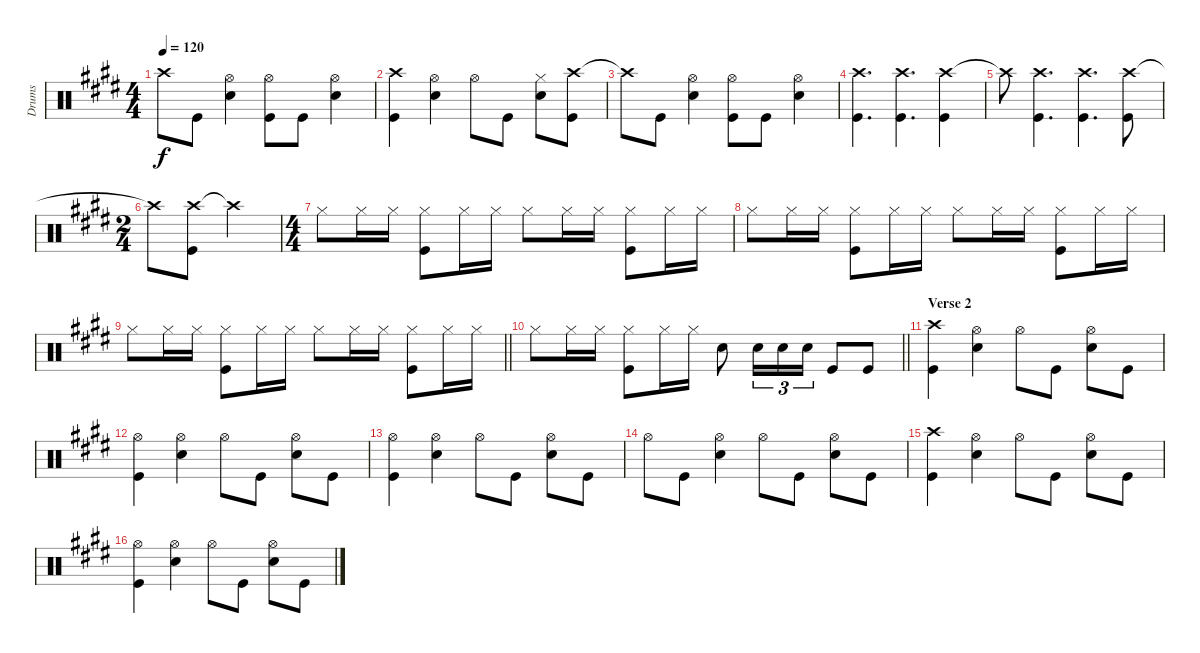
\track ("Drums" "Drums") {instrument percussion}
\staff {score}
\articulation defaults
\ts (4 4)
\tempo 120
\clef neutral
\ks e "Crash high (hit)"{t}.8{dy f} "Kick (hit)".8
("Hi-Hat (open)" "Snare (hit) 2").4 ("Hi-Hat (open)" "Kick (hit)").8 "Kick (hit)".8 ("Hi-Hat (open)" "Snare (hit) 2").4 |
("Crash high (hit)" "Kick (hit)").4 ("Hi-Hat (open)" "Snare (hit) 2").4 "Hi-Hat (open)".8 "Kick (hit)".8 ("Hi-Hat (closed)" "Snare (hit) 2").8 ("Crash high (hit)" "Kick (hit)").8 |
"Crash high (hit)"{t}.8 "Kick (hit)".8 ("Hi-Hat (open)" "Snare (hit) 2").4 ("Hi-Hat (open)" "Kick (hit)").8 "Kick (hit)".8 ("Hi-Hat (open)" "Snare (hit) 2").4 |
("Crash high (hit)" "Kick (hit)").4{d} ("Crash high (hit)" "Kick (hit)").4{d} ("Crash high (hit)" "Kick (hit)").4 |
"Crash high (hit)"{t}.8 ("Crash high (hit)" "Kick (hit)").4{d} ("Crash high (hit)" "Kick (hit)").4{d} ("Crash high (hit)" "Kick (hit)").8 |
\ts (2 4)
"Crash high (hit)"{t}.8 ("Crash high (hit)" "Kick (hit)").8 "Crash high (hit)"{t}.4 |
\ts (4 4)
"Hi-Hat (closed)".8 "Hi-Hat (closed)".16 "Hi-Hat (closed)".16 ("Hi-Hat (closed)" "Kick (hit)").8 "Hi-Hat (closed)".16 "Hi-Hat (closed)".16 "Hi-Hat (closed)".8 "Hi-Hat (closed)".16 "Hi-Hat (closed)".16 ("Hi-Hat (closed)" "Kick (hit)").8 "Hi-Hat (closed)".16 "Hi-Hat (closed)".16 |
"Hi-Hat (closed)".8 "Hi-Hat (closed)".16 "Hi-Hat (closed)".16 ("Hi-Hat (closed)" "Kick (hit)").8 "Hi-Hat (closed)".16 "Hi-Hat (closed)".16 "Hi-Hat (closed)".8 "Hi-Hat (closed)".16 "Hi-Hat (closed)".16 ("Hi-Hat (closed)" "Kick (hit)").8 "Hi-Hat (closed)".16 "Hi-Hat (closed)".16 |
\barLineRight lightlight "Hi-Hat (closed)".8 "Hi-Hat (closed)".16 "Hi-Hat (closed)".16
("Hi-Hat (closed)" "Kick (hit)").8 "Hi-Hat (closed)".16 "Hi-Hat (closed)".16 "Hi-Hat (closed)".8 "Hi-Hat (closed)".16 "Hi-Hat (closed)".16 ("Hi-Hat (closed)" "Kick (hit)").8 "Hi-Hat (closed)".16 "Hi-Hat (closed)".16 |
\barLineRight lightlight "Hi-Hat (closed)".8 "Hi-Hat (closed)".16 "Hi-Hat (closed)".16
("Hi-Hat (closed)" "Kick (hit)").8 "Hi-Hat (closed)".16 "Hi-Hat (closed)".16 "Snare (hit) 2".8 "Snare (hit) 2".16{tu (3 2)} "Snare (hit) 2".16{tu (3 2)} "Snare (hit) 2".16{tu (3 2)} "Kick (hit)".8 "Kick (hit)".8 |
\section ("" "Verse 2")
("Crash high (hit)" "Kick (hit)").4 ("Hi-Hat (open)" "Snare (hit) 2").4 "Hi-Hat (open)".8 "Kick (hit)".8 ("Hi-Hat (open)" "Snare (hit) 2").8 "Kick (hit)".8 |
("Hi-Hat (open)" "Kick (hit)").4 ("Hi-Hat (open)" "Snare (hit) 2").4 "Hi-Hat (open)".8 "Kick (hit)".8 ("Hi-Hat (open)" "Snare (hit) 2").8 "Kick (hit)".8 |
("Hi-Hat (open)" "Kick (hit)").4 ("Hi-Hat (open)" "Snare (hit) 2").4 "Hi-Hat (open)".8 "Kick (hit)".8 ("Hi-Hat (open)" "Snare (hit) 2").8 "Kick (hit)".8 |
"Hi-Hat (open)".8 "Kick (hit)".8 ("Hi-Hat (open)" "Snare (hit) 2").4 "Hi-Hat (open)".8 "Kick (hit)".8 ("Hi-Hat (open)" "Snare (hit) 2").8 "Kick (hit)".8 |
("Crash high (hit)" "Kick (hit)").4 ("Hi-Hat (open)" "Snare (hit) 2").4 "Hi-Hat (open)".8 "Kick (hit)".8 ("Hi-Hat (open)" "Snare (hit) 2").8 "Kick (hit)".8 |
("Hi-Hat (open)" "Kick (hit)").4 ("Hi-Hat (open)" "Snare (hit) 2").4 "Hi-Hat (open)".8 "Kick (hit)".8 ("Hi-Hat (open)" "Snare (hit) 2").8 "Kick (hit)".8
